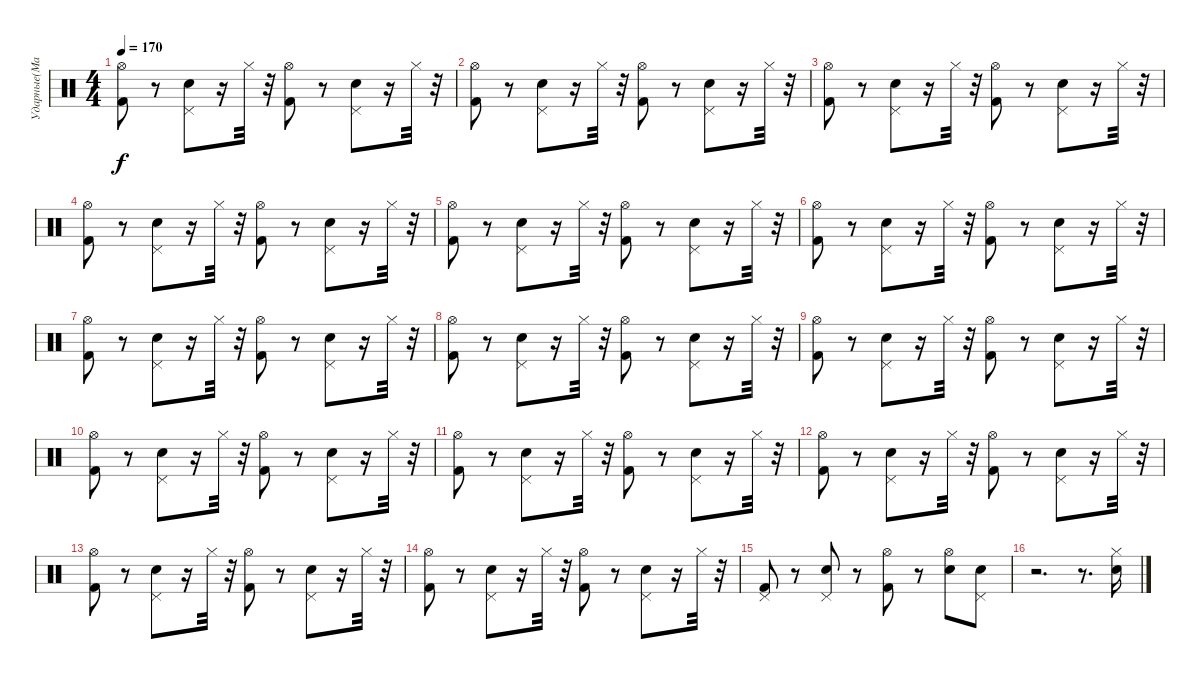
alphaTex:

\track ("Ударные(Май)" "Ударные(Ма") {instrument percussion}
\staff {score}
\articulation defaults
\ts (4 4)
\tempo 170
\clef neutral
\ks c
("Hi-Hat (open)" "Kick (hit) 2").8{dy f} r.8 ("Electric Snare (hit)" "Pedal Hi-Hat (hit)").8 r.16 "Hi-Hat (closed)".32 r.32 ("Kick (hit) 2" "Hi-Hat (open)").8 r.8 ("Electric Snare (hit)" "Pedal Hi-Hat (hit)").8 r.16 "Hi-Hat (closed)".32 r.32 |
("Hi-Hat (open)" "Kick (hit) 2").8 r.8 ("Electric Snare (hit)" "Pedal Hi-Hat (hit)").8 r.16 "Hi-Hat (closed)".32 r.32 ("Kick (hit) 2" "Hi-Hat (open)").8 r.8 ("Electric Snare (hit)" "Pedal Hi-Hat (hit)").8 r.16 "Hi-Hat (closed)".32 r.32 |
("Hi-Hat (open)" "Kick (hit) 2").8 r.8 ("Electric Snare (hit)" "Pedal Hi-Hat (hit)").8 r.16 "Hi-Hat (closed)".32 r.32 ("Kick (hit) 2" "Hi-Hat (open)").8 r.8 ("Electric Snare (hit)" "Pedal Hi-Hat (hit)").8 r.16 "Hi-Hat (closed)".32 r.32 |
("Hi-Hat (open)" "Kick (hit) 2").8 r.8 ("Electric Snare (hit)" "Pedal Hi-Hat (hit)").8 r.16 "Hi-Hat (closed)".32 r.32 ("Kick (hit) 2" "Hi-Hat (open)").8 r.8 ("Electric Snare (hit)" "Pedal Hi-Hat (hit)").8 r.16 "Hi-Hat (closed)".32 r.32 |
("Hi-Hat (open)" "Kick (hit) 2").8 r.8 ("Electric Snare (hit)" "Pedal Hi-Hat (hit)").8 r.16 "Hi-Hat (closed)".32 r.32 ("Kick (hit) 2" "Hi-Hat (open)").8 r.8 ("Electric Snare (hit)" "Pedal Hi-Hat (hit)").8 r.16 "Hi-Hat (closed)".32 r.32 |
("Hi-Hat (open)" "Kick (hit) 2").8 r.8 ("Electric Snare (hit)" "Pedal Hi-Hat (hit)").8 r.16 "Hi-Hat (closed)".32 r.32 ("Kick (hit) 2" "Hi-Hat (open)").8 r.8 ("Electric Snare (hit)" "Pedal Hi-Hat (hit)").8 r.16 "Hi-Hat (closed)".32 r.32 |
("Hi-Hat (open)" "Kick (hit) 2").8 r.8 ("Electric Snare (hit)" "Pedal Hi-Hat (hit)").8 r.16 "Hi-Hat (closed)".32 r.32 ("Kick (hit) 2" "Hi-Hat (open)").8 r.8 ("Electric Snare (hit)" "Pedal Hi-Hat (hit)").8 r.16 "Hi-Hat (closed)".32 r.32 |
("Hi-Hat (open)" "Kick (hit) 2").8 r.8 ("Electric Snare (hit)" "Pedal Hi-Hat (hit)").8 r.16 "Hi-Hat (closed)".32 r.32 ("Kick (hit) 2" "Hi-Hat (open)").8 r.8 ("Electric Snare (hit)" "Pedal Hi-Hat (hit)").8 r.16 "Hi-Hat (closed)".32 r.32 |
("Hi-Hat (open)" "Kick (hit) 2").8 r.8 ("Electric Snare (hit)" "Pedal Hi-Hat (hit)").8 r.16 "Hi-Hat (closed)".32 r.32 ("Kick (hit) 2" "Hi-Hat (open)").8 r.8 ("Electric Snare (hit)" "Pedal Hi-Hat (hit)").8 r.16 "Hi-Hat (closed)".32 r.32 |
("Hi-Hat (open)" "Kick (hit) 2").8 r.8 ("Electric Snare (hit)" "Pedal Hi-Hat (hit)").8 r.16 "Hi-Hat (closed)".32 r.32 ("Kick (hit) 2" "Hi-Hat (open)").8 r.8 ("Electric Snare (hit)" "Pedal Hi-Hat (hit)").8 r.16 "Hi-Hat (closed)".32 r.32 |
("Hi-Hat (open)" "Kick (hit) 2").8 r.8 ("Electric Snare (hit)" "Pedal Hi-Hat (hit)").8 r.16 "Hi-Hat (closed)".32 r.32 ("Kick (hit) 2" "Hi-Hat (open)").8 r.8 ("Electric Snare (hit)" "Pedal Hi-Hat (hit)").8 r.16 "Hi-Hat (closed)".32 r.32 |
("Hi-Hat (open)" "Kick (hit) 2").8 r.8 ("Electric Snare (hit)" "Pedal Hi-Hat (hit)").8 r.16 "Hi-Hat (closed)".32 r.32 ("Kick (hit) 2" "Hi-Hat (open)").8 r.8 ("Electric Snare (hit)" "Pedal Hi-Hat (hit)").8 r.16 "Hi-Hat (closed)".32 r.32 |
("Hi-Hat (open)" "Kick (hit) 2").8 r.8 ("Electric Snare (hit)" "Pedal Hi-Hat (hit)").8 r.16 "Hi-Hat (closed)".32 r.32 ("Kick (hit) 2" "Hi-Hat (open)").8 r.8 ("Electric Snare (hit)" "Pedal Hi-Hat (hit)").8 r.16 "Hi-Hat (closed)".32 r.32 |
("Hi-Hat (open)" "Kick (hit) 2").8 r.8 ("Electric Snare (hit)" "Pedal Hi-Hat (hit)").8 r.16 "Hi-Hat (closed)".32 r.32 ("Kick (hit) 2" "Hi-Hat (open)").8 r.8 ("Electric Snare (hit)" "Pedal Hi-Hat (hit)").8 r.16 "Hi-Hat (closed)".32 r.32 |
("Pedal Hi-Hat (hit)" "Kick (hit) 2").8 r.8 ("Electric Snare (hit)" "Pedal Hi-Hat (hit)").8 r.8 ("Kick (hit) 2" "Hi-Hat (open)").8 r.8 ("Electric Snare (hit)" "Hi-Hat (open)").8 ("Pedal Hi-Hat (hit)" "Electric Snare (hit)").8 |
r.2{d} r.8{d} ("Electric Snare (hit)" "Hi-Hat (closed)").16
